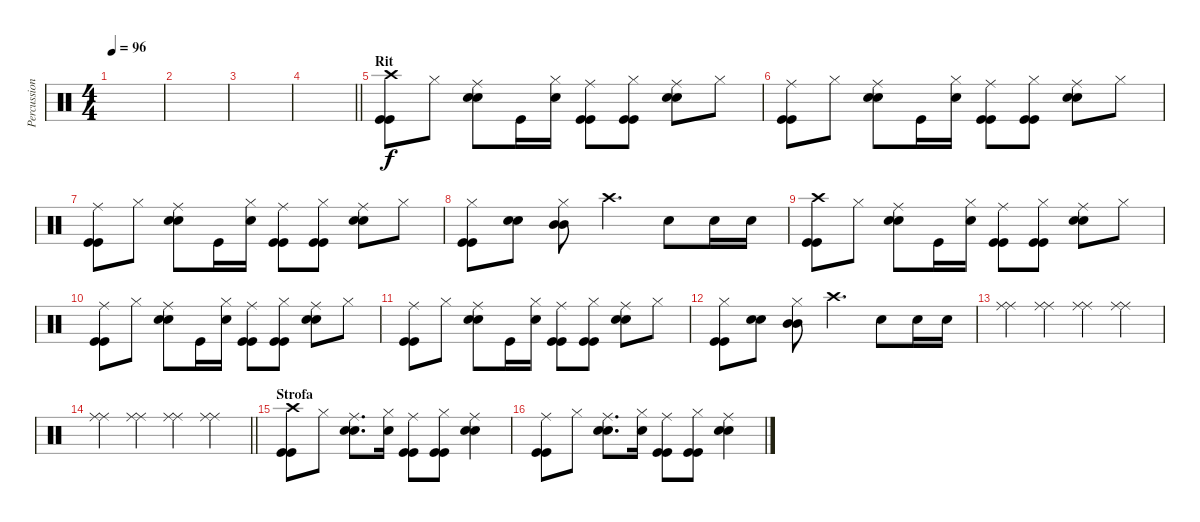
\track ("Percussioni" "Percussion") {instrument percussion}
\staff {score}
\articulation defaults
\ts (4 4)
\tempo 96
\clef neutral
\ks c
|
|
|
\barLineRight lightlight
|
\section ("" "Rit")
("Crash high (hit)" "Kick (hit)" "Kick (hit)").8 "Hi-Hat (closed)".8 ("Ride (middle)" "Snare (hit) 2" "Snare (hit) 2").8 "Kick (hit)".16 ("Hi-Hat (closed)" "Snare (hit) 2").16 ("Ride (middle)" "Kick (hit)" "Kick (hit)").8 ("Hi-Hat (closed)" "Kick (hit)" "Kick (hit)").8 ("Ride (middle)" "Snare (hit) 2" "Snare (hit) 2").8 "Hi-Hat (closed)".8 |
("Ride (middle)" "Kick (hit)" "Kick (hit)").8 "Hi-Hat (closed)".8 ("Ride (middle)" "Snare (hit) 2" "Snare (hit) 2").8 "Kick (hit)".16 ("Hi-Hat (closed)" "Snare (hit) 2").16 ("Ride (middle)" "Kick (hit)" "Kick (hit)").8 ("Hi-Hat (closed)" "Kick (hit)" "Kick (hit)").8 ("Ride (middle)" "Snare (hit) 2" "Snare (hit) 2").8 "Hi-Hat (closed)".8 |
("Ride (middle)" "Kick (hit)" "Kick (hit)").8 "Hi-Hat (closed)".8 ("Ride (middle)" "Snare (hit) 2" "Snare (hit) 2").8 "Kick (hit)".16 ("Hi-Hat (closed)" "Snare (hit) 2").16 ("Ride (middle)" "Kick (hit)" "Kick (hit)").8 ("Hi-Hat (closed)" "Kick (hit)" "Kick (hit)").8 ("Ride (middle)" "Snare (hit) 2" "Snare (hit) 2").8 "Hi-Hat (closed)".8 |
("Hi-Hat (closed)" "Kick (hit)" "Kick (hit)").8 ("Snare (hit) 2" "Snare (hit) 2").8 ("Hi-Hat (closed)" "Mid Tom (hit)" "Mid Tom (hit)").8 "Crash high (hit)".4{d} "Snare (hit) 2".8 "Snare (hit) 2".16 "Snare (hit) 2".16 |
("Crash high (hit)" "Kick (hit)" "Kick (hit)").8 "Hi-Hat (closed)".8 ("Ride (middle)" "Snare (hit) 2" "Snare (hit) 2").8 "Kick (hit)".16 ("Hi-Hat (closed)" "Snare (hit) 2").16 ("Ride (middle)" "Kick (hit)" "Kick (hit)").8 ("Hi-Hat (closed)" "Kick (hit)" "Kick (hit)").8 ("Ride (middle)" "Snare (hit) 2" "Snare (hit) 2").8 "Hi-Hat (closed)".8 |
("Ride (middle)" "Kick (hit)" "Kick (hit)").8 "Hi-Hat (closed)".8 ("Ride (middle)" "Snare (hit) 2" "Snare (hit) 2").8 "Kick (hit)".16 ("Hi-Hat (closed)" "Snare (hit) 2").16 ("Ride (middle)" "Kick (hit)" "Kick (hit)").8 ("Hi-Hat (closed)" "Kick (hit)" "Kick (hit)").8 ("Ride (middle)" "Snare (hit) 2" "Snare (hit) 2").8 "Hi-Hat (closed)".8 |
("Ride (middle)" "Kick (hit)" "Kick (hit)").8 "Hi-Hat (closed)".8 ("Ride (middle)" "Snare (hit) 2" "Snare (hit) 2").8 "Kick (hit)".16 ("Hi-Hat (closed)" "Snare (hit) 2").16 ("Ride (middle)" "Kick (hit)" "Kick (hit)").8 ("Hi-Hat (closed)" "Kick (hit)" "Kick (hit)").8 ("Ride (middle)" "Snare (hit) 2" "Snare (hit) 2").8 "Hi-Hat (closed)".8 |
("Hi-Hat (closed)" "Kick (hit)" "Kick (hit)").8 ("Snare (hit) 2" "Snare (hit) 2").8 ("Hi-Hat (closed)" "Mid Tom (hit)" "Mid Tom (hit)").8 "Crash high (hit)".4{d} "Snare (hit) 2".8 "Snare (hit) 2".16 "Snare (hit) 2".16 |
("Ride (middle)" "Ride (middle)").4 ("Ride (middle)" "Ride (middle)").4 ("Ride (middle)" "Ride (middle)").4 ("Ride (middle)" "Ride (middle)").4 |
\barLineRight lightlight
("Ride (middle)" "Ride (middle)").4 ("Ride (middle)" "Ride (middle)").4 ("Ride (middle)" "Ride (middle)").4 ("Ride (middle)" "Ride (middle)").4 |
\section ("" "Strofa")
("Crash high (hit)" "Kick (hit)" "Kick (hit)").8 "Hi-Hat (closed)".8 ("Ride (middle)" "Snare (hit) 2" "Snare (hit) 2").8{d} ("Hi-Hat (closed)" "Snare (hit) 2").16 ("Ride (middle)" "Kick (hit)" "Kick (hit)").8 ("Hi-Hat (closed)" "Kick (hit)" "Kick (hit)").8 ("Ride (middle)" "Snare (hit) 2" "Snare (hit) 2").4 |
("Ride (middle)" "Kick (hit)" "Kick (hit)").8 "Hi-Hat (closed)".8 ("Ride (middle)" "Snare (hit) 2" "Snare (hit) 2").8{d} ("Hi-Hat (closed)" "Snare (hit) 2").16 ("Ride (middle)" "Kick (hit)" "Kick (hit)").8 ("Hi-Hat (closed)" "Kick (hit)" "Kick (hit)").8 ("Ride (middle)" "Snare (hit) 2" "Snare (hit) 2").4
